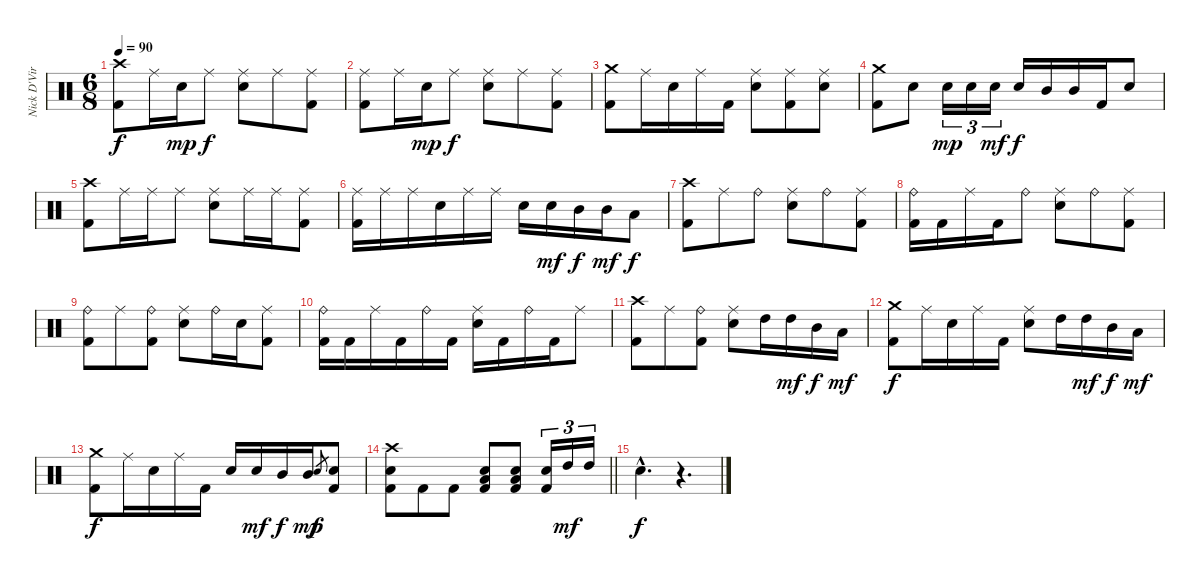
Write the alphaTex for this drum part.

\track ("Nick D'Virgilio" "Nick D'Vir") {instrument percussion}
\staff {score}
\articulation defaults
\ts (6 8)
\tempo 90
\clef neutral
\ks c
("Crash high (hit)" "Kick (hit) 2").8{dy f} "Ride (middle)".16 "Electric Snare (hit)".16{dy mp} "Ride (middle)".8{dy f} ("Ride (middle)" "Electric Snare (hit)").8 "Ride (middle)".8 ("Ride (middle)" "Kick (hit) 2").8 |
("Ride (middle)" "Kick (hit) 2").8 "Ride (middle)".16 "Electric Snare (hit)".16{dy mp} "Ride (middle)".8{dy f} ("Ride (middle)" "Electric Snare (hit)").8 "Ride (middle)".8 ("Ride (middle)" "Kick (hit) 2").8 |
("Crash medium (hit)" "Kick (hit) 2").8 "Ride (middle)".16 "Electric Snare (hit)".16 "Ride (middle)".16 "Kick (hit) 2".16 ("Ride (middle)" "Electric Snare (hit)").8 ("Ride (middle)" "Kick (hit) 2").8 ("Ride (middle)" "Electric Snare (hit)").8 |
("Crash medium (hit)" "Kick (hit) 2").8 "Electric Snare (hit)".8 "Electric Snare (hit)".16{tu (3 2) dy mp} "Electric Snare (hit)".16{tu (3 2)} "Electric Snare (hit)".16{tu (3 2) dy mf} "Electric Snare (hit)".16{dy f} "Mid Tom (hit)".16 "Mid Tom (hit)".16 "Kick (hit) 2".16 "Electric Snare (hit)".8 |
("Crash high (hit)" "Kick (hit) 2").8 "Ride (middle)".16 "Ride (middle)".16 "Ride (middle)".8 ("Ride (middle)" "Electric Snare (hit)").8 "Ride (middle)".16 "Ride (middle)".16 ("Ride (middle)" "Kick (hit) 2").8 |
("Ride (middle)" "Kick (hit) 2").16 "Ride (middle)".16 "Ride (middle)".16 "Electric Snare (hit)".16 "Ride (middle)".16 "Ride (middle)".16 "Electric Snare (hit)".16 "Electric Snare (hit)".16{dy mf} "Mid Tom (hit)".16{dy f} "Mid Tom (hit)".16{dy mf} "Low Tom (hit)".8{dy f} |
("Crash high (hit)" "Kick (hit) 2").8 "Ride (middle)".8 "Ride (bell)".8 ("Ride (middle)" "Electric Snare (hit)").8 "Ride (bell)".8 ("Ride (middle)" "Kick (hit) 2").8 |
("Ride (bell)" "Kick (hit) 2").16 "Kick (hit) 2".16 "Ride (middle)".16 "Kick (hit) 2".16 "Ride (bell)".8 ("Ride (middle)" "Electric Snare (hit)").8 "Ride (bell)".8 ("Ride (middle)" "Kick (hit) 2").8 |
("Ride (bell)" "Kick (hit) 2").8 "Ride (middle)".8 ("Ride (bell)" "Kick (hit) 2").8 ("Ride (middle)" "Electric Snare (hit)").8 "Ride (bell)".16 "Electric Snare (hit)".16 ("Ride (middle)" "Kick (hit) 2").8 |
("Ride (bell)" "Kick (hit) 2").16 "Kick (hit) 2".16 "Ride (middle)".16 "Kick (hit) 2".16 "Ride (bell)".16 "Kick (hit) 2".16 ("Ride (middle)" "Electric Snare (hit)").16 "Kick (hit) 2".16 "Ride (bell)".16 "Kick (hit) 2".16 "Ride (middle)".8 |
("Crash high (hit)" "Kick (hit) 2").8 "Ride (middle)".8 ("Ride (bell)" "Kick (hit) 2").8 ("Ride (middle)" "Electric Snare (hit)").8 "High Tom (hit)".16 "High Tom (hit)".16{dy mf} "Mid Tom (hit)".16{dy f} "Low Tom (hit)".16{dy mf} |
("Crash medium (hit)" "Kick (hit) 2").8{dy f} "Ride (middle)".16 "Electric Snare (hit)".16 "Ride (middle)".16 "Kick (hit) 2".16 ("Ride (middle)" "Electric Snare (hit)").8 "High Tom (hit)".16 "High Tom (hit)".16{dy mf} "Mid Tom (hit)".16{dy f} "Low Tom (hit)".16{dy mf} |
("Crash medium (hit)" "Kick (hit) 2").8{dy f} "Ride (middle)".16 "Electric Snare (hit)".16 "Ride (middle)".16 "Kick (hit) 2".16 "Electric Snare (hit)".16 "Electric Snare (hit)".16{dy mf} "Mid Tom (hit)".16{dy f} "Mid Tom (hit)".16{dy mp} "Electric Snare (hit)".8{gr dy f} ("Electric Snare (hit)" "Kick (hit) 2").8 |
\barLineRight lightlight
("Crash high (hit)" "Electric Snare (hit)" "Kick (hit) 2").8 "Kick (hit) 2".8 "Kick (hit) 2".8 ("Electric Snare (hit)" "Low Tom (hit)" "Kick (hit) 2").8 ("Electric Snare (hit)" "Low Tom (hit)" "Kick (hit) 2").8 ("Electric Snare (hit)" "Kick (hit) 2").16{tu (3 2)} "High Tom (hit)".16{tu (3 2) dy mf} "High Tom (hit)".16{tu (3 2)} |
"Electric Snare (hit)"{hac}.4{d dy f} r.4{d}
